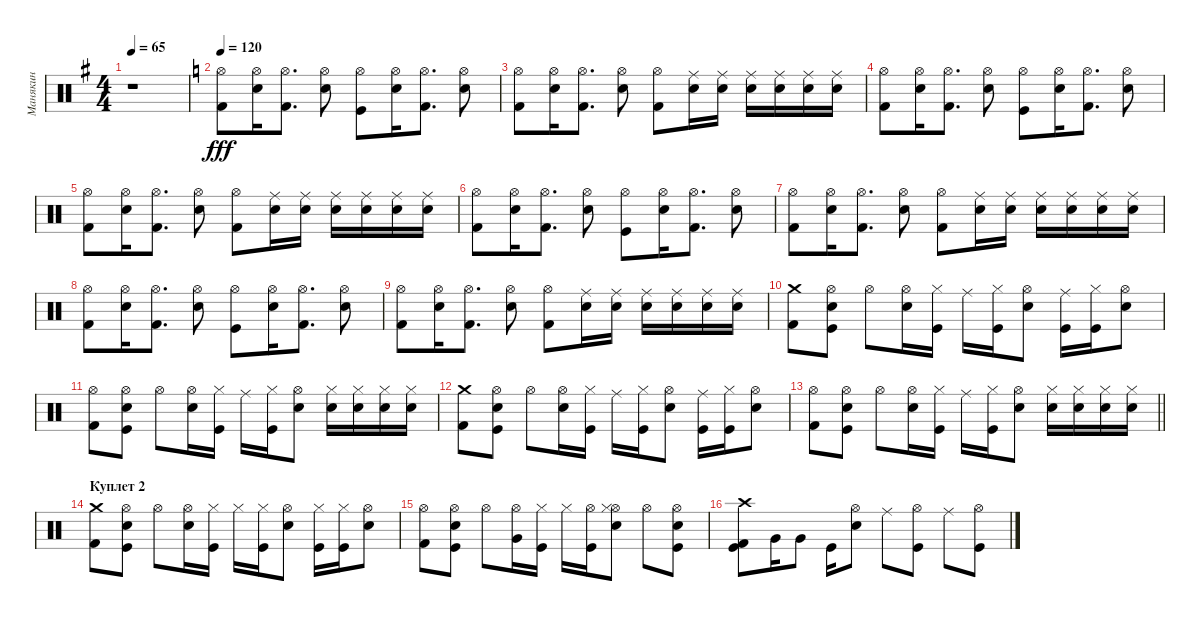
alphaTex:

\track ("Манякин" "Манякин") {instrument percussion}
\staff {score}
\articulation defaults
\ts (4 4)
\tempo 65
\clef neutral
\ks g
r.1{dy fff} |
\tempo 120
\ks c
("Hi-Hat (open)" "Kick (hit) 2").8 ("Hi-Hat (open)" "Snare (hit) 2").16 ("Hi-Hat (open)" "Kick (hit) 2").8{d} ("Hi-Hat (open)" "Snare (hit) 2").8 ("Hi-Hat (open)" "Kick (hit)").8 ("Hi-Hat (open)" "Snare (hit) 2").16 ("Hi-Hat (open)" "Kick (hit) 2").8{d} ("Hi-Hat (open)" "Snare (hit) 2").8 |
("Hi-Hat (open)" "Kick (hit) 2").8 ("Hi-Hat (open)" "Snare (hit) 2").16 ("Hi-Hat (open)" "Kick (hit) 2").8{d} ("Hi-Hat (open)" "Snare (hit) 2").8 ("Hi-Hat (open)" "Kick (hit) 2").8 ("Ride (middle)" "Snare (hit) 2").16 ("Ride (middle)" "Snare (hit) 2").16 ("Ride (middle)" "Snare (hit) 2").16 ("Ride (middle)" "Snare (hit) 2").16 ("Ride (middle)" "Snare (hit) 2").16 ("Ride (middle)" "Snare (hit) 2").16 |
("Hi-Hat (open)" "Kick (hit) 2").8 ("Hi-Hat (open)" "Snare (hit) 2").16 ("Hi-Hat (open)" "Kick (hit) 2").8{d} ("Hi-Hat (open)" "Snare (hit) 2").8 ("Hi-Hat (open)" "Kick (hit)").8 ("Hi-Hat (open)" "Snare (hit) 2").16 ("Hi-Hat (open)" "Kick (hit) 2").8{d} ("Hi-Hat (open)" "Snare (hit) 2").8 |
("Hi-Hat (open)" "Kick (hit) 2").8 ("Hi-Hat (open)" "Snare (hit) 2").16 ("Hi-Hat (open)" "Kick (hit) 2").8{d} ("Hi-Hat (open)" "Snare (hit) 2").8 ("Hi-Hat (open)" "Kick (hit) 2").8 ("Ride (middle)" "Snare (hit) 2").16 ("Ride (middle)" "Snare (hit) 2").16 ("Ride (middle)" "Snare (hit) 2").16 ("Ride (middle)" "Snare (hit) 2").16 ("Ride (middle)" "Snare (hit) 2").16 ("Ride (middle)" "Snare (hit) 2").16 |
("Hi-Hat (open)" "Kick (hit) 2").8 ("Hi-Hat (open)" "Snare (hit) 2").16 ("Hi-Hat (open)" "Kick (hit) 2").8{d} ("Hi-Hat (open)" "Snare (hit) 2").8 ("Hi-Hat (open)" "Kick (hit)").8 ("Hi-Hat (open)" "Snare (hit) 2").16 ("Hi-Hat (open)" "Kick (hit) 2").8{d} ("Hi-Hat (open)" "Snare (hit) 2").8 |
("Hi-Hat (open)" "Kick (hit) 2").8 ("Hi-Hat (open)" "Snare (hit) 2").16 ("Hi-Hat (open)" "Kick (hit) 2").8{d} ("Hi-Hat (open)" "Snare (hit) 2").8 ("Hi-Hat (open)" "Kick (hit) 2").8 ("Ride (middle)" "Snare (hit) 2").16 ("Ride (middle)" "Snare (hit) 2").16 ("Ride (middle)" "Snare (hit) 2").16 ("Ride (middle)" "Snare (hit) 2").16 ("Ride (middle)" "Snare (hit) 2").16 ("Ride (middle)" "Snare (hit) 2").16 |
("Hi-Hat (open)" "Kick (hit) 2").8 ("Hi-Hat (open)" "Snare (hit) 2").16 ("Hi-Hat (open)" "Kick (hit) 2").8{d} ("Hi-Hat (open)" "Snare (hit) 2").8 ("Hi-Hat (open)" "Kick (hit)").8 ("Hi-Hat (open)" "Snare (hit) 2").16 ("Hi-Hat (open)" "Kick (hit) 2").8{d} ("Hi-Hat (open)" "Snare (hit) 2").8 |
("Hi-Hat (open)" "Kick (hit) 2").8 ("Hi-Hat (open)" "Snare (hit) 2").16 ("Hi-Hat (open)" "Kick (hit) 2").8{d} ("Hi-Hat (open)" "Snare (hit) 2").8 ("Hi-Hat (open)" "Kick (hit) 2").8 ("Ride (middle)" "Snare (hit) 2").16 ("Ride (middle)" "Snare (hit) 2").16 ("Ride (middle)" "Snare (hit) 2").16 ("Ride (middle)" "Snare (hit) 2").16 ("Ride (middle)" "Snare (hit) 2").16 ("Ride (middle)" "Snare (hit) 2").16 |
("Crash medium (hit)" "Kick (hit) 2").8 ("Hi-Hat (open)" "Kick (hit)" "Snare (hit) 2").8 "Hi-Hat (open)".8 ("Snare (hit) 2" "Hi-Hat (open)").16 ("Kick (hit)" "Hi-Hat (closed)").16 "Ride (middle)".16 ("Kick (hit)" "Hi-Hat (closed)").16 ("Snare (hit) 2" "Hi-Hat (open)").8 ("Kick (hit)" "Ride (middle)").16 ("Kick (hit)" "Hi-Hat (closed)").16 ("Snare (hit) 2" "Hi-Hat (open)").8 |
("Hi-Hat (open)" "Kick (hit) 2").8 ("Hi-Hat (open)" "Snare (hit) 2" "Kick (hit)").8 "Hi-Hat (open)".8 ("Snare (hit) 2" "Hi-Hat (open)").16 ("Hi-Hat (closed)" "Kick (hit)").16 "Ride (middle)".16 ("Hi-Hat (closed)" "Kick (hit)").16 ("Hi-Hat (open)" "Snare (hit) 2").8 ("Hi-Hat (closed)" "Snare (hit) 2").16 ("Hi-Hat (closed)" "Snare (hit) 2").16 ("Hi-Hat (closed)" "Snare (hit) 2").16 ("Hi-Hat (closed)" "Snare (hit) 2").16 |
("Crash medium (hit)" "Kick (hit) 2").8 ("Hi-Hat (open)" "Kick (hit)" "Snare (hit) 2").8 "Hi-Hat (open)".8 ("Snare (hit) 2" "Hi-Hat (open)").16 ("Kick (hit)" "Hi-Hat (closed)").16 "Ride (middle)".16 ("Kick (hit)" "Hi-Hat (closed)").16 ("Snare (hit) 2" "Hi-Hat (open)").8 ("Kick (hit)" "Ride (middle)").16 ("Kick (hit)" "Hi-Hat (closed)").16 ("Snare (hit) 2" "Hi-Hat (open)").8 |
\barLineRight lightlight
("Hi-Hat (open)" "Kick (hit) 2").8 ("Hi-Hat (open)" "Snare (hit) 2" "Kick (hit)").8 "Hi-Hat (open)".8 ("Snare (hit) 2" "Hi-Hat (open)").16 ("Hi-Hat (closed)" "Kick (hit)").16 "Ride (middle)".16 ("Hi-Hat (closed)" "Kick (hit)").16 ("Hi-Hat (open)" "Snare (hit) 2").8 ("Hi-Hat (closed)" "Snare (hit) 2").16 ("Hi-Hat (closed)" "Snare (hit) 2").16 ("Hi-Hat (closed)" "Snare (hit) 2").16 ("Hi-Hat (closed)" "Snare (hit) 2").16 |
\section ("" "Куплет 2")
("Crash medium (hit)" "Kick (hit) 2").8 ("Hi-Hat (open)" "Snare (hit) 2" "Kick (hit)").8 "Hi-Hat (open)".8 ("Snare (hit) 2" "Hi-Hat (open)").16 ("Hi-Hat (closed)" "Kick (hit)").16 "Hi-Hat (closed)".16 ("Hi-Hat (closed)" "Kick (hit)").16 ("Hi-Hat (open)" "Snare (hit) 2").8 ("Hi-Hat (closed)" "Kick (hit)").16 ("Hi-Hat (closed)" "Kick (hit)").16 ("Hi-Hat (open)" "Snare (hit) 2").8 |
("Hi-Hat (open)" "Kick (hit) 2").8 ("Hi-Hat (open)" "Snare (hit) 2" "Kick (hit)").8 "Hi-Hat (open)".8 ("Hi-Hat (open)" "Very Low Tom (hit)").16 ("Hi-Hat (closed)" "Kick (hit)").16 "Hi-Hat (closed)".16 ("Hi-Hat (open)" "Kick (hit)").16 ("Hi-Hat (open)" "Hi-Hat (closed)" "Snare (hit) 2").8 "Hi-Hat (open)".8 ("Hi-Hat (open)" "Snare (hit) 2" "Kick (hit)").8 |
("Crash high (hit)" "Kick (hit)" "Kick (hit) 2").8 "Very Low Tom (hit)".16 "Very Low Tom (hit)".8 "Kick (hit)".16 ("Hi-Hat (open)" "Snare (hit) 2").8 "Ride (middle)".8 ("Kick (hit)" "Hi-Hat (open)").8 "Ride (middle)".8 ("Kick (hit)" "Hi-Hat (open)").8
